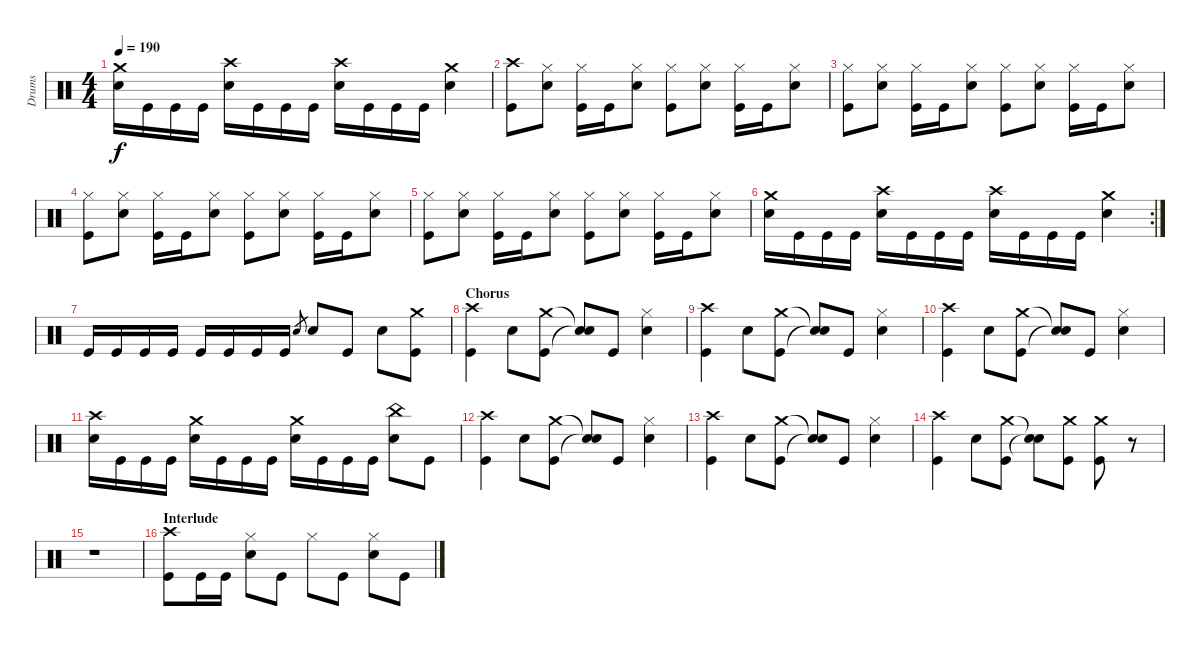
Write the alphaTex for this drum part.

\track ("Drums" "Drums") {instrument percussion}
\staff {score}
\articulation defaults
\ts (4 4)
\tempo 190
\clef neutral
\ks c
("Crash medium (hit)" "Snare (hit) 2").16{dy f} "Kick (hit)".16 "Kick (hit)".16 "Kick (hit)".16 ("Crash high (hit)" "Snare (hit) 2").16 "Kick (hit)".16 "Kick (hit)".16 "Kick (hit)".16 ("Crash high (hit)" "Snare (hit) 2").16 "Kick (hit)".16 "Kick (hit)".16 "Kick (hit)".16 ("Crash medium (hit)" "Snare (hit) 2").4 |
("Crash high (hit)" "Kick (hit)").8 ("Hi-Hat (closed)" "Snare (hit) 2").8 ("Hi-Hat (closed)" "Kick (hit)").16 "Kick (hit)".16 ("Hi-Hat (closed)" "Snare (hit) 2").8 ("Hi-Hat (closed)" "Kick (hit)").8 ("Hi-Hat (closed)" "Snare (hit) 2").8 ("Hi-Hat (closed)" "Kick (hit)").16 "Kick (hit)".16 ("Hi-Hat (closed)" "Snare (hit) 2").8 |
("Hi-Hat (closed)" "Kick (hit)").8 ("Hi-Hat (closed)" "Snare (hit) 2").8 ("Hi-Hat (closed)" "Kick (hit)").16 "Kick (hit)".16 ("Hi-Hat (closed)" "Snare (hit) 2").8 ("Hi-Hat (closed)" "Kick (hit)").8 ("Hi-Hat (closed)" "Snare (hit) 2").8 ("Hi-Hat (closed)" "Kick (hit)").16 "Kick (hit)".16 ("Hi-Hat (closed)" "Snare (hit) 2").8 |
("Hi-Hat (closed)" "Kick (hit)").8 ("Hi-Hat (closed)" "Snare (hit) 2").8 ("Hi-Hat (closed)" "Kick (hit)").16 "Kick (hit)".16 ("Hi-Hat (closed)" "Snare (hit) 2").8 ("Hi-Hat (closed)" "Kick (hit)").8 ("Hi-Hat (closed)" "Snare (hit) 2").8 ("Hi-Hat (closed)" "Kick (hit)").16 "Kick (hit)".16 ("Hi-Hat (closed)" "Snare (hit) 2").8 |
("Hi-Hat (closed)" "Kick (hit)").8 ("Hi-Hat (closed)" "Snare (hit) 2").8 ("Hi-Hat (closed)" "Kick (hit)").16 "Kick (hit)".16 ("Hi-Hat (closed)" "Snare (hit) 2").8 ("Hi-Hat (closed)" "Kick (hit)").8 ("Hi-Hat (closed)" "Snare (hit) 2").8 ("Hi-Hat (closed)" "Kick (hit)").16 "Kick (hit)".16 ("Hi-Hat (closed)" "Snare (hit) 2").8 |
\rc 2
("Crash medium (hit)" "Snare (hit) 2").16 "Kick (hit)".16 "Kick (hit)".16 "Kick (hit)".16 ("Crash high (hit)" "Snare (hit) 2").16 "Kick (hit)".16 "Kick (hit)".16 "Kick (hit)".16 ("Crash high (hit)" "Snare (hit) 2").16 "Kick (hit)".16 "Kick (hit)".16 "Kick (hit)".16 ("Crash medium (hit)" "Snare (hit) 2").4 |
"Kick (hit)".16 "Kick (hit)".16 "Kick (hit)".16 "Kick (hit)".16 "Kick (hit)".16 "Kick (hit)".16 "Kick (hit)".16 "Kick (hit)".16 "Snare (hit) 2".8{gr} "Snare (hit) 2".8 "Kick (hit)".8 "Snare (hit) 2".8 ("Crash medium (hit)" "Kick (hit)").8 |
\section ("" "Chorus")
("Crash high (hit)" "Kick (hit)").4 "Snare (hit) 2".8 ("Crash medium (hit)" "Kick (hit)").8 ("Snare (hit)"{t} "Snare (hit)"{t}).8 "Kick (hit)".8 ("Hi-Hat (closed)" "Snare (hit) 2").4 |
("Crash high (hit)" "Kick (hit)").4 "Snare (hit) 2".8 ("Crash medium (hit)" "Kick (hit)").8 ("Snare (hit)"{t} "Snare (hit)"{t}).8 "Kick (hit)".8 ("Hi-Hat (closed)" "Snare (hit) 2").4 |
("Crash high (hit)" "Kick (hit)").4 "Snare (hit) 2".8 ("Crash medium (hit)" "Kick (hit)").8 ("Snare (hit)"{t} "Snare (hit)"{t}).8 "Kick (hit)".8 ("Hi-Hat (closed)" "Snare (hit) 2").4 |
("Crash high (hit)" "Snare (hit) 2").16 "Kick (hit)".16 "Kick (hit)".16 "Kick (hit)".16 ("Crash medium (hit)" "Snare (hit) 2").16 "Kick (hit)".16 "Kick (hit)".16 "Kick (hit)".16 ("Crash medium (hit)" "Snare (hit) 2").16 "Kick (hit)".16 "Kick (hit)".16 "Kick (hit)".16 ("China (hit)" "Snare (hit) 2").8 "Kick (hit)".8 |
("Crash high (hit)" "Kick (hit)").4 "Snare (hit) 2".8 ("Crash medium (hit)" "Kick (hit)").8 ("Snare (hit)"{t} "Snare (hit)"{t}).8 "Kick (hit)".8 ("Hi-Hat (closed)" "Snare (hit) 2").4 |
("Crash high (hit)" "Kick (hit)").4 "Snare (hit) 2".8 ("Crash medium (hit)" "Kick (hit)").8 ("Snare (hit)"{t} "Snare (hit)"{t}).8 "Kick (hit)".8 ("Hi-Hat (closed)" "Snare (hit) 2").4 |
("Crash high (hit)" "Kick (hit)").4 "Snare (hit) 2".8 ("Crash medium (hit)" "Kick (hit)").8 ("Snare (hit)"{t} "Snare (hit)"{t}).8 ("Crash medium (hit)" "Kick (hit)").8 ("Crash medium (hit)" "Kick (hit)").8 r.8 |
r.1 |
\section ("" "Interlude")
("Crash high (hit)" "Kick (hit)").8 "Kick (hit)".16 "Kick (hit)".16 ("Hi-Hat (closed)" "Snare (hit) 2").8 "Kick (hit)".8 "Hi-Hat (closed)".8 "Kick (hit)".8 ("Hi-Hat (closed)" "Snare (hit) 2").8 "Kick (hit)".8
